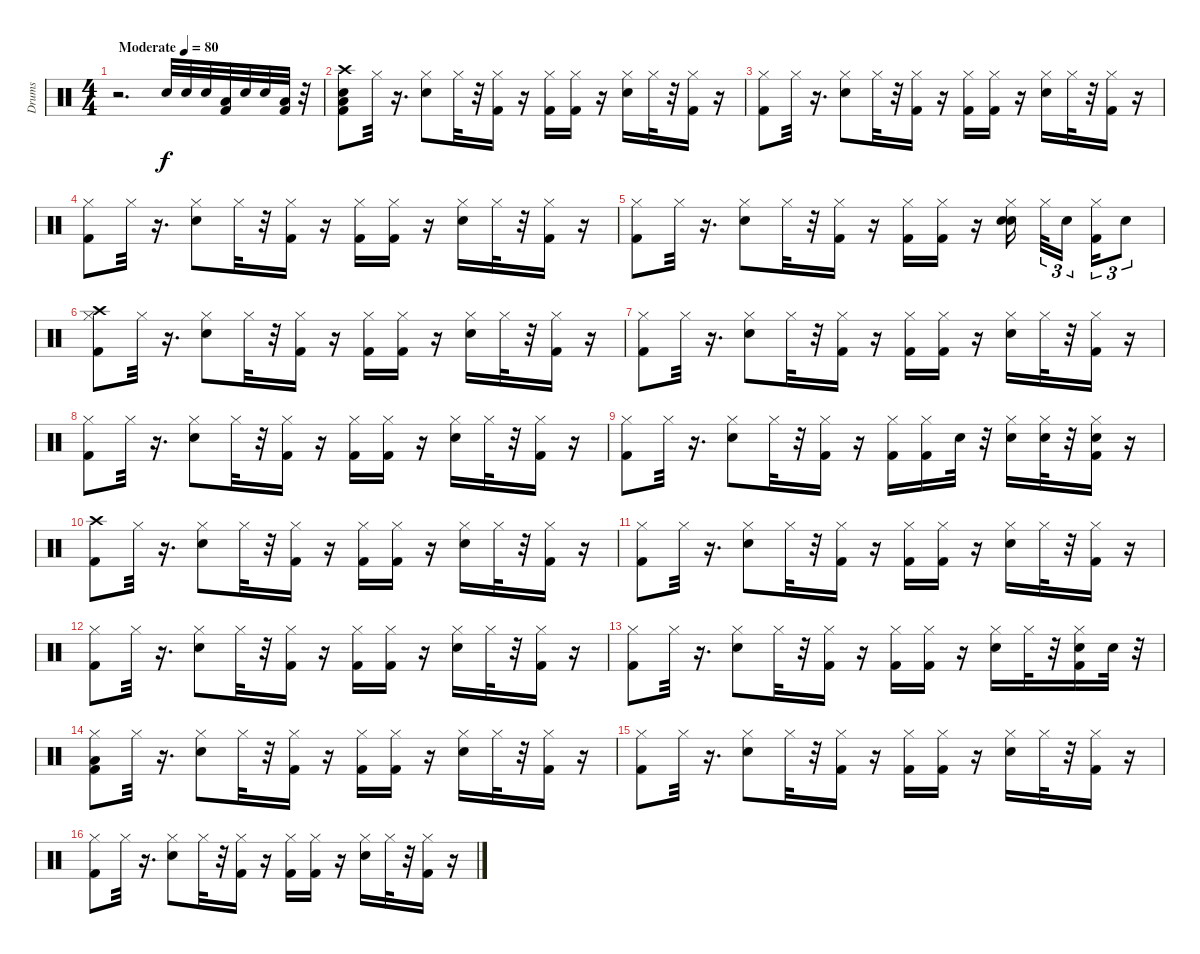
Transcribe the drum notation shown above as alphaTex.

\track ("Drums" "Drums") {instrument percussion}
\staff {score}
\articulation defaults
\ts (4 4)
\tempo (80 "Moderate")
\clef neutral
\ks c
r.2{d dy f} "Snare (hit) 2".32 "Snare (hit) 2".32 "Snare (hit) 2".32 ("Low Floor Tom (hit)" "Kick (hit) 2").32 "Snare (hit) 2".32 "Snare (hit) 2".32 ("Kick (hit) 2" "Low Floor Tom (hit)").32 r.32 |
("Snare (hit) 2" "Low Floor Tom (hit)" "Crash high (hit)" "Kick (hit) 2").8 "Hi-Hat (closed)".32 r.16{d} ("Hi-Hat (closed)" "Snare (hit) 2").8 "Hi-Hat (closed)".32 r.32 ("Kick (hit) 2" "Hi-Hat (closed)").16 r.16 ("Hi-Hat (closed)" "Kick (hit) 2").16 ("Hi-Hat (closed)" "Kick (hit) 2").16 r.16 ("Hi-Hat (closed)" "Snare (hit) 2").16 "Hi-Hat (closed)".32 r.32 ("Hi-Hat (closed)" "Kick (hit) 2").16 r.16 |
("Hi-Hat (closed)" "Kick (hit) 2").8 "Hi-Hat (closed)".32 r.16{d} ("Hi-Hat (closed)" "Snare (hit) 2").8 "Hi-Hat (closed)".32 r.32 ("Kick (hit) 2" "Hi-Hat (closed)").16 r.16 ("Hi-Hat (closed)" "Kick (hit) 2").16 ("Hi-Hat (closed)" "Kick (hit) 2").16 r.16 ("Hi-Hat (closed)" "Snare (hit) 2").16 "Hi-Hat (closed)".32 r.32 ("Hi-Hat (closed)" "Kick (hit) 2").16 r.16 |
("Hi-Hat (closed)" "Kick (hit) 2").8 "Hi-Hat (closed)".32 r.16{d} ("Hi-Hat (closed)" "Snare (hit) 2").8 "Hi-Hat (closed)".32 r.32 ("Kick (hit) 2" "Hi-Hat (closed)").16 r.16 ("Hi-Hat (closed)" "Kick (hit) 2").16 ("Hi-Hat (closed)" "Kick (hit) 2").16 r.16 ("Hi-Hat (closed)" "Snare (hit) 2").16 "Hi-Hat (closed)".32 r.32 ("Hi-Hat (closed)" "Kick (hit) 2").16 r.16 |
("Hi-Hat (closed)" "Kick (hit) 2").8 "Hi-Hat (closed)".32 r.16{d} ("Hi-Hat (closed)" "Snare (hit) 2").8 "Hi-Hat (closed)".32 r.32 ("Kick (hit) 2" "Hi-Hat (closed)").16 r.16 ("Hi-Hat (closed)" "Kick (hit) 2").16 ("Hi-Hat (closed)" "Kick (hit) 2").16 r.16 ("Snare (hit) 2" "Hi-Hat (closed)" "Snare (hit) 2").16 "Hi-Hat (closed)".32{tu (3 2)} "Snare (hit) 2".16{tu (3 2)} ("Hi-Hat (closed)" "Kick (hit) 2").16{tu (3 2)} "Snare (hit) 2".8{tu (3 2)} |
("Crash high (hit)" "Hi-Hat (closed)" "Kick (hit) 2").8 "Hi-Hat (closed)".32 r.16{d} ("Hi-Hat (closed)" "Snare (hit) 2").8 "Hi-Hat (closed)".32 r.32 ("Kick (hit) 2" "Hi-Hat (closed)").16 r.16 ("Hi-Hat (closed)" "Kick (hit) 2").16 ("Hi-Hat (closed)" "Kick (hit) 2").16 r.16 ("Hi-Hat (closed)" "Snare (hit) 2").16 "Hi-Hat (closed)".32 r.32 ("Hi-Hat (closed)" "Kick (hit) 2").16 r.16 |
("Hi-Hat (closed)" "Kick (hit) 2").8 "Hi-Hat (closed)".32 r.16{d} ("Hi-Hat (closed)" "Snare (hit) 2").8 "Hi-Hat (closed)".32 r.32 ("Kick (hit) 2" "Hi-Hat (closed)").16 r.16 ("Hi-Hat (closed)" "Kick (hit) 2").16 ("Hi-Hat (closed)" "Kick (hit) 2").16 r.16 ("Hi-Hat (closed)" "Snare (hit) 2").16 "Hi-Hat (closed)".32 r.32 ("Hi-Hat (closed)" "Kick (hit) 2").16 r.16 |
("Hi-Hat (closed)" "Kick (hit) 2").8 "Hi-Hat (closed)".32 r.16{d} ("Hi-Hat (closed)" "Snare (hit) 2").8 "Hi-Hat (closed)".32 r.32 ("Kick (hit) 2" "Hi-Hat (closed)").16 r.16 ("Hi-Hat (closed)" "Kick (hit) 2").16 ("Hi-Hat (closed)" "Kick (hit) 2").16 r.16 ("Hi-Hat (closed)" "Snare (hit) 2").16 "Hi-Hat (closed)".32 r.32 ("Hi-Hat (closed)" "Kick (hit) 2").16 r.16 |
("Hi-Hat (closed)" "Kick (hit) 2").8 "Hi-Hat (closed)".32 r.16{d} ("Hi-Hat (closed)" "Snare (hit) 2").8 "Hi-Hat (closed)".32 r.32 ("Kick (hit) 2" "Hi-Hat (closed)").16 r.16 ("Hi-Hat (closed)" "Kick (hit) 2").16 ("Hi-Hat (closed)" "Kick (hit) 2").16 "Snare (hit) 2".32 r.32 ("Hi-Hat (closed)" "Snare (hit) 2").16 ("Snare (hit) 2" "Hi-Hat (closed)").32 r.32 ("Snare (hit) 2" "Hi-Hat (closed)" "Kick (hit) 2").16 r.16 |
("Crash high (hit)" "Kick (hit) 2").8 "Hi-Hat (closed)".32 r.16{d} ("Hi-Hat (closed)" "Snare (hit) 2").8 "Hi-Hat (closed)".32 r.32 ("Kick (hit) 2" "Hi-Hat (closed)").16 r.16 ("Hi-Hat (closed)" "Kick (hit) 2").16 ("Hi-Hat (closed)" "Kick (hit) 2").16 r.16 ("Hi-Hat (closed)" "Snare (hit) 2").16 "Hi-Hat (closed)".32 r.32 ("Hi-Hat (closed)" "Kick (hit) 2").16 r.16 |
("Hi-Hat (closed)" "Kick (hit) 2").8 "Hi-Hat (closed)".32 r.16{d} ("Hi-Hat (closed)" "Snare (hit) 2").8 "Hi-Hat (closed)".32 r.32 ("Kick (hit) 2" "Hi-Hat (closed)").16 r.16 ("Hi-Hat (closed)" "Kick (hit) 2").16 ("Hi-Hat (closed)" "Kick (hit) 2").16 r.16 ("Hi-Hat (closed)" "Snare (hit) 2").16 "Hi-Hat (closed)".32 r.32 ("Hi-Hat (closed)" "Kick (hit) 2").16 r.16 |
("Hi-Hat (closed)" "Kick (hit) 2").8 "Hi-Hat (closed)".32 r.16{d} ("Hi-Hat (closed)" "Snare (hit) 2").8 "Hi-Hat (closed)".32 r.32 ("Kick (hit) 2" "Hi-Hat (closed)").16 r.16 ("Hi-Hat (closed)" "Kick (hit) 2").16 ("Hi-Hat (closed)" "Kick (hit) 2").16 r.16 ("Hi-Hat (closed)" "Snare (hit) 2").16 "Hi-Hat (closed)".32 r.32 ("Hi-Hat (closed)" "Kick (hit) 2").16 r.16 |
("Hi-Hat (closed)" "Kick (hit) 2").8 "Hi-Hat (closed)".32 r.16{d} ("Hi-Hat (closed)" "Snare (hit) 2").8 "Hi-Hat (closed)".32 r.32 ("Kick (hit) 2" "Hi-Hat (closed)").16 r.16 ("Hi-Hat (closed)" "Kick (hit) 2").16 ("Hi-Hat (closed)" "Kick (hit) 2").16 r.16 ("Hi-Hat (closed)" "Snare (hit) 2").16 "Hi-Hat (closed)".32 r.32 ("Snare (hit) 2" "Hi-Hat (closed)" "Kick (hit) 2").16 "Snare (hit) 2".32 r.32 |
("Low Floor Tom (hit)" "Hi-Hat (closed)" "Kick (hit) 2").8 "Hi-Hat (closed)".32 r.16{d} ("Hi-Hat (closed)" "Snare (hit) 2").8 "Hi-Hat (closed)".32 r.32 ("Kick (hit) 2" "Hi-Hat (closed)").16 r.16 ("Hi-Hat (closed)" "Kick (hit) 2").16 ("Hi-Hat (closed)" "Kick (hit) 2").16 r.16 ("Hi-Hat (closed)" "Snare (hit) 2").16 "Hi-Hat (closed)".32 r.32 ("Hi-Hat (closed)" "Kick (hit) 2").16 r.16 |
("Hi-Hat (closed)" "Kick (hit) 2").8 "Hi-Hat (closed)".32 r.16{d} ("Hi-Hat (closed)" "Snare (hit) 2").8 "Hi-Hat (closed)".32 r.32 ("Kick (hit) 2" "Hi-Hat (closed)").16 r.16 ("Hi-Hat (closed)" "Kick (hit) 2").16 ("Hi-Hat (closed)" "Kick (hit) 2").16 r.16 ("Hi-Hat (closed)" "Snare (hit) 2").16 "Hi-Hat (closed)".32 r.32 ("Hi-Hat (closed)" "Kick (hit) 2").16 r.16 |
("Hi-Hat (closed)" "Kick (hit) 2").8 "Hi-Hat (closed)".32 r.16{d} ("Hi-Hat (closed)" "Snare (hit) 2").8 "Hi-Hat (closed)".32 r.32 ("Kick (hit) 2" "Hi-Hat (closed)").16 r.16 ("Hi-Hat (closed)" "Kick (hit) 2").16 ("Hi-Hat (closed)" "Kick (hit) 2").16 r.16 ("Hi-Hat (closed)" "Snare (hit) 2").16 "Hi-Hat (closed)".32 r.32 ("Hi-Hat (closed)" "Kick (hit) 2").16 r.16
